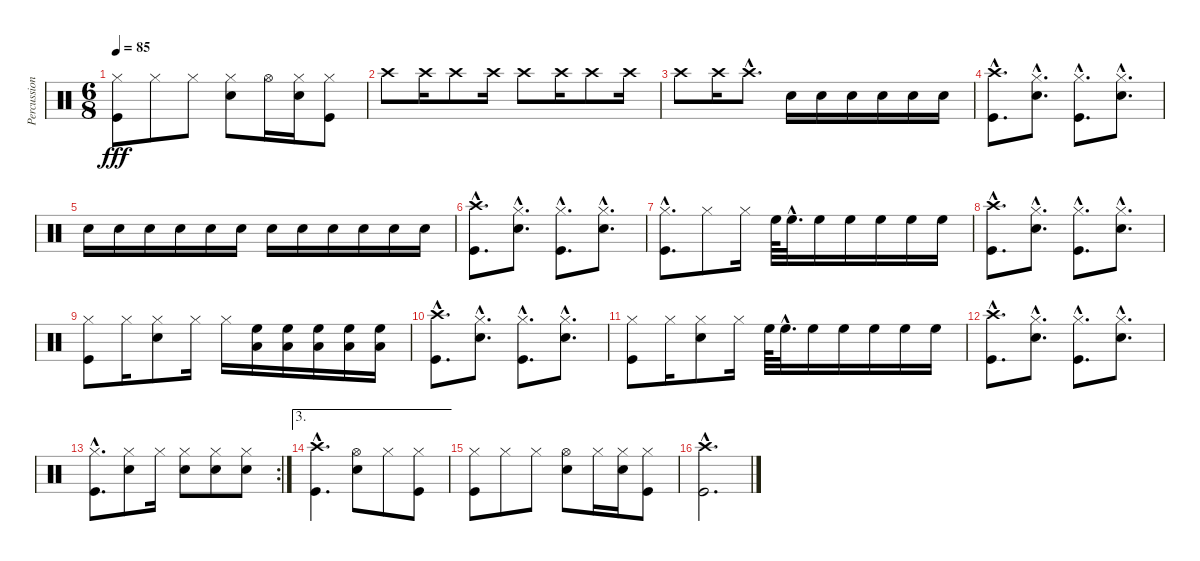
\track ("Percussion" "Percussion") {instrument percussion}
\staff {score}
\articulation defaults
\ts (6 8)
\tempo 85
\clef neutral
\ks c
("Hi-Hat (closed)" "Kick (hit)").8{dy fff} "Hi-Hat (closed)".8 "Hi-Hat (closed)".8 ("Hi-Hat (closed)" "Snare (hit) 2").8 "Hi-Hat (open)".16 ("Hi-Hat (closed)" "Snare (hit) 2").16 ("Hi-Hat (closed)" "Kick (hit)").8 |
"Crash high (hit)".8 "Crash high (hit)".16 "Crash high (hit)".8 "Crash high (hit)".16 "Crash high (hit)".8 "Crash high (hit)".16 "Crash high (hit)".8 "Crash high (hit)".16 |
"Crash high (hit)".8 "Crash high (hit)".16 "Crash high (hit)"{hac}.8{d} "Snare (hit) 2".16 "Snare (hit) 2".16 "Snare (hit) 2".16 "Snare (hit) 2".16 "Snare (hit) 2".16 "Snare (hit) 2".16 |
("Crash high (hit)"{hac} "Kick (hit)"{hac}).8{d} ("Hi-Hat (closed)"{hac} "Snare (hit) 2"{hac}).8{d} ("Hi-Hat (closed)"{hac} "Kick (hit)"{hac}).8{d} ("Hi-Hat (closed)"{hac} "Snare (hit) 2"{hac}).8{d} |
"Snare (hit) 2".16 "Snare (hit) 2".16 "Snare (hit) 2".16 "Snare (hit) 2".16 "Snare (hit) 2".16 "Snare (hit) 2".16 "Snare (hit) 2".16 "Snare (hit) 2".16 "Snare (hit) 2".16 "Snare (hit) 2".16 "Snare (hit) 2".16 "Snare (hit) 2".16 |
("Crash high (hit)"{hac} "Kick (hit)"{hac}).8{d} ("Hi-Hat (closed)"{hac} "Snare (hit) 2"{hac}).8{d} ("Hi-Hat (closed)"{hac} "Kick (hit)"{hac}).8{d} ("Hi-Hat (closed)"{hac} "Snare (hit) 2"{hac}).8{d} |
("Hi-Hat (closed)"{hac} "Kick (hit)"{hac}).8{d} "Hi-Hat (closed)".8 "Hi-Hat (closed)".16 "High Floor Tom (hit)".64 "High Floor Tom (hit)"{hac}.32{d} "High Floor Tom (hit)".16 "High Floor Tom (hit)".16 "High Floor Tom (hit)".16 "High Floor Tom (hit)".16 "High Floor Tom (hit)".16 |
("Crash high (hit)"{hac} "Kick (hit)"{hac}).8{d} ("Hi-Hat (closed)"{hac} "Snare (hit) 2"{hac}).8{d} ("Hi-Hat (closed)"{hac} "Kick (hit)"{hac}).8{d} ("Hi-Hat (closed)"{hac} "Snare (hit) 2"{hac}).8{d} |
("Hi-Hat (closed)" "Kick (hit)").8 "Hi-Hat (closed)".16 ("Hi-Hat (closed)" "Snare (hit) 2").8 "Hi-Hat (closed)".16 "Hi-Hat (closed)".16 ("High Floor Tom (hit)" "Low Tom (hit)").16 ("High Floor Tom (hit)" "Low Tom (hit)").16 ("High Floor Tom (hit)" "Low Tom (hit)").16 ("High Floor Tom (hit)" "Low Tom (hit)").16 ("High Floor Tom (hit)" "Low Tom (hit)").16 |
("Crash high (hit)"{hac} "Kick (hit)"{hac}).8{d} ("Hi-Hat (closed)"{hac} "Snare (hit) 2"{hac}).8{d} ("Hi-Hat (closed)"{hac} "Kick (hit)"{hac}).8{d} ("Hi-Hat (closed)"{hac} "Snare (hit) 2"{hac}).8{d} |
("Hi-Hat (closed)" "Kick (hit)").8 "Hi-Hat (closed)".16 ("Hi-Hat (closed)" "Snare (hit) 2").8 "Hi-Hat (closed)".16 "High Floor Tom (hit)".64 "High Floor Tom (hit)"{hac}.32{d} "High Floor Tom (hit)".16 "High Floor Tom (hit)".16 "High Floor Tom (hit)".16 "High Floor Tom (hit)".16 "High Floor Tom (hit)".16 |
("Crash high (hit)"{hac} "Kick (hit)"{hac}).8{d} ("Hi-Hat (closed)"{hac} "Snare (hit) 2"{hac}).8{d} ("Hi-Hat (closed)"{hac} "Kick (hit)"{hac}).8{d} ("Hi-Hat (closed)"{hac} "Snare (hit) 2"{hac}).8{d} |
\rc 2
("Hi-Hat (closed)"{hac} "Kick (hit)"{hac}).8{d} ("Hi-Hat (closed)" "Snare (hit) 2").8 "Hi-Hat (closed)".16 ("Hi-Hat (closed)" "Snare (hit) 2").8 ("Hi-Hat (closed)" "Snare (hit) 2").8 ("Hi-Hat (closed)" "Snare (hit) 2").8 |
\ae 3
("Crash high (hit)"{hac} "Kick (hit)"{hac}).4{d} ("Hi-Hat (open)" "Snare (hit) 2").8 "Hi-Hat (closed)".8 ("Hi-Hat (closed)" "Kick (hit)").8 |
("Hi-Hat (closed)" "Kick (hit)").8 "Hi-Hat (closed)".8 "Hi-Hat (closed)".8 ("Hi-Hat (open)" "Snare (hit) 2").8 "Hi-Hat (closed)".16 ("Hi-Hat (closed)" "Snare (hit) 2").16 ("Hi-Hat (closed)" "Kick (hit)").8 |
("Crash high (hit)"{hac} "Kick (hit)"{hac}).2{d}
